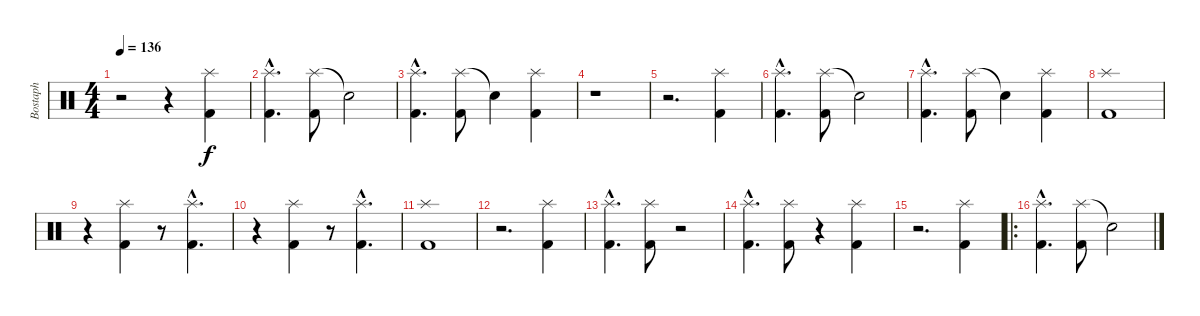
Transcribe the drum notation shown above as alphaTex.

\track ("Bostaph" "Bostaph") {instrument percussion}
\staff {score}
\articulation defaults
\ts (4 4)
\tempo 136
\clef neutral
\ks c
r.2{dy f} r.4 ("Splash (hit)" "Kick (hit) 2").4 |
("Splash (hit)"{hac} "Kick (hit) 2"{hac}).4{d} ("Splash (hit)" "Kick (hit) 2").8 "Snare (hit)"{t}.2 |
("Splash (hit)"{hac} "Kick (hit) 2"{hac}).4{d} ("Splash (hit)" "Kick (hit) 2").8 "Snare (hit)"{t}.4 ("Splash (hit)" "Kick (hit) 2").4 |
r.1 |
r.2{d} ("Splash (hit)" "Kick (hit) 2").4 |
("Splash (hit)"{hac} "Kick (hit) 2"{hac}).4{d} ("Splash (hit)" "Kick (hit) 2").8 "Snare (hit)"{t}.2 |
("Splash (hit)"{hac} "Kick (hit) 2"{hac}).4{d} ("Splash (hit)" "Kick (hit) 2").8 "Snare (hit)"{t}.4 ("Splash (hit)" "Kick (hit) 2").4 |
("Splash (hit)" "Kick (hit) 2").1 |
r.4 ("Splash (hit)" "Kick (hit) 2").4 r.8 ("Splash (hit)"{hac} "Kick (hit) 2"{hac}).4{d} |
r.4 ("Splash (hit)" "Kick (hit) 2").4 r.8 ("Splash (hit)"{hac} "Kick (hit) 2"{hac}).4{d} |
("Splash (hit)" "Kick (hit) 2").1 |
r.2{d} ("Splash (hit)" "Kick (hit) 2").4 |
("Splash (hit)"{hac} "Kick (hit) 2"{hac}).4{d} ("Splash (hit)" "Kick (hit) 2").8 r.2 |
("Splash (hit)"{hac} "Kick (hit) 2"{hac}).4{d} ("Splash (hit)" "Kick (hit) 2").8 r.4 ("Splash (hit)" "Kick (hit) 2").4 |
r.2{d} ("Splash (hit)" "Kick (hit) 2").4 |
\ro
("Splash (hit)"{hac} "Kick (hit) 2"{hac}).4{d} ("Splash (hit)" "Kick (hit) 2").8 "Snare (hit)"{t}.2
